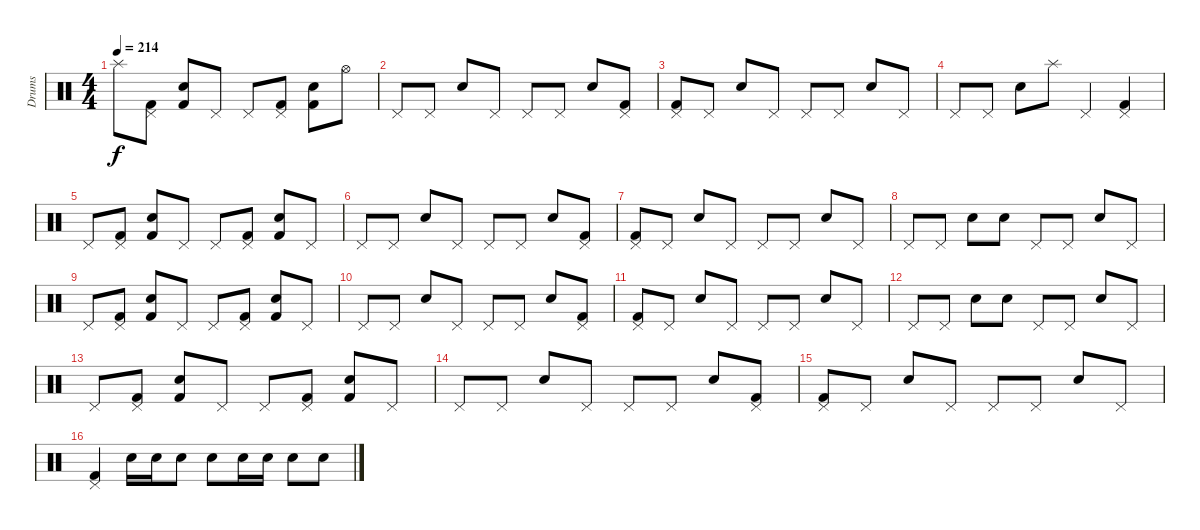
\track ("Drums" "Drums") {instrument percussion}
\staff {score}
\articulation defaults
\ts (4 4)
\tempo 214
\clef neutral
\ks c "Splash (hit)".8{dy f}
("Pedal Hi-Hat (hit)" "Kick (hit) 2").8 ("Electric Snare (hit)" "Kick (hit) 2").8 "Pedal Hi-Hat (hit)".8 "Pedal Hi-Hat (hit)".8 ("Pedal Hi-Hat (hit)" "Kick (hit) 2").8 ("Electric Snare (hit)" "Kick (hit) 2").8 "Hi-Hat (open)".8 |
"Pedal Hi-Hat (hit)".8 "Pedal Hi-Hat (hit)".8 "Electric Snare (hit)".8 "Pedal Hi-Hat (hit)".8 "Pedal Hi-Hat (hit)".8 "Pedal Hi-Hat (hit)".8 "Electric Snare (hit)".8 ("Pedal Hi-Hat (hit)" "Kick (hit) 2").8 |
("Pedal Hi-Hat (hit)" "Kick (hit) 2").8 "Pedal Hi-Hat (hit)".8 "Electric Snare (hit)".8 "Pedal Hi-Hat (hit)".8 "Pedal Hi-Hat (hit)".8 "Pedal Hi-Hat (hit)".8 "Electric Snare (hit)".8 "Pedal Hi-Hat (hit)".8 |
"Pedal Hi-Hat (hit)".8 "Pedal Hi-Hat (hit)".8 "Electric Snare (hit)".8 "Splash (hit)".8 "Pedal Hi-Hat (hit)".4 ("Pedal Hi-Hat (hit)" "Kick (hit) 2").4 |
"Pedal Hi-Hat (hit)".8 ("Pedal Hi-Hat (hit)" "Kick (hit) 2").8 ("Electric Snare (hit)" "Kick (hit) 2").8 "Pedal Hi-Hat (hit)".8 "Pedal Hi-Hat (hit)".8 ("Pedal Hi-Hat (hit)" "Kick (hit) 2").8 ("Electric Snare (hit)" "Kick (hit) 2").8 "Pedal Hi-Hat (hit)".8 |
"Pedal Hi-Hat (hit)".8 "Pedal Hi-Hat (hit)".8 "Electric Snare (hit)".8 "Pedal Hi-Hat (hit)".8 "Pedal Hi-Hat (hit)".8 "Pedal Hi-Hat (hit)".8 "Electric Snare (hit)".8 ("Pedal Hi-Hat (hit)" "Kick (hit) 2").8 |
("Pedal Hi-Hat (hit)" "Kick (hit) 2").8 "Pedal Hi-Hat (hit)".8 "Electric Snare (hit)".8 "Pedal Hi-Hat (hit)".8 "Pedal Hi-Hat (hit)".8 "Pedal Hi-Hat (hit)".8 "Electric Snare (hit)".8 "Pedal Hi-Hat (hit)".8 |
"Pedal Hi-Hat (hit)".8 "Pedal Hi-Hat (hit)".8 "Electric Snare (hit)".8 "Electric Snare (hit)".8 "Pedal Hi-Hat (hit)".8 "Pedal Hi-Hat (hit)".8 "Electric Snare (hit)".8 "Pedal Hi-Hat (hit)".8 |
"Pedal Hi-Hat (hit)".8 ("Pedal Hi-Hat (hit)" "Kick (hit) 2").8 ("Electric Snare (hit)" "Kick (hit) 2").8 "Pedal Hi-Hat (hit)".8 "Pedal Hi-Hat (hit)".8 ("Pedal Hi-Hat (hit)" "Kick (hit) 2").8 ("Electric Snare (hit)" "Kick (hit) 2").8 "Pedal Hi-Hat (hit)".8 |
"Pedal Hi-Hat (hit)".8 "Pedal Hi-Hat (hit)".8 "Electric Snare (hit)".8 "Pedal Hi-Hat (hit)".8 "Pedal Hi-Hat (hit)".8 "Pedal Hi-Hat (hit)".8 "Electric Snare (hit)".8 ("Pedal Hi-Hat (hit)" "Kick (hit) 2").8 |
("Pedal Hi-Hat (hit)" "Kick (hit) 2").8 "Pedal Hi-Hat (hit)".8 "Electric Snare (hit)".8 "Pedal Hi-Hat (hit)".8 "Pedal Hi-Hat (hit)".8 "Pedal Hi-Hat (hit)".8 "Electric Snare (hit)".8 "Pedal Hi-Hat (hit)".8 |
"Pedal Hi-Hat (hit)".8 "Pedal Hi-Hat (hit)".8 "Electric Snare (hit)".8 "Electric Snare (hit)".8 "Pedal Hi-Hat (hit)".8 "Pedal Hi-Hat (hit)".8 "Electric Snare (hit)".8 "Pedal Hi-Hat (hit)".8 |
"Pedal Hi-Hat (hit)".8 ("Pedal Hi-Hat (hit)" "Kick (hit) 2").8 ("Electric Snare (hit)" "Kick (hit) 2").8 "Pedal Hi-Hat (hit)".8 "Pedal Hi-Hat (hit)".8 ("Pedal Hi-Hat (hit)" "Kick (hit) 2").8 ("Electric Snare (hit)" "Kick (hit) 2").8 "Pedal Hi-Hat (hit)".8 |
"Pedal Hi-Hat (hit)".8 "Pedal Hi-Hat (hit)".8 "Electric Snare (hit)".8 "Pedal Hi-Hat (hit)".8 "Pedal Hi-Hat (hit)".8 "Pedal Hi-Hat (hit)".8 "Electric Snare (hit)".8 ("Pedal Hi-Hat (hit)" "Kick (hit) 2").8 |
("Pedal Hi-Hat (hit)" "Kick (hit) 2").8 "Pedal Hi-Hat (hit)".8 "Electric Snare (hit)".8 "Pedal Hi-Hat (hit)".8 "Pedal Hi-Hat (hit)".8 "Pedal Hi-Hat (hit)".8 "Electric Snare (hit)".8 "Pedal Hi-Hat (hit)".8 |
("Pedal Hi-Hat (hit)" "Kick (hit) 2").4 "Electric Snare (hit)".16 "Electric Snare (hit)".16 "Electric Snare (hit)".8 "Electric Snare (hit)".8 "Electric Snare (hit)".16 "Electric Snare (hit)".16 "Electric Snare (hit)".8 "Electric Snare (hit)".8
